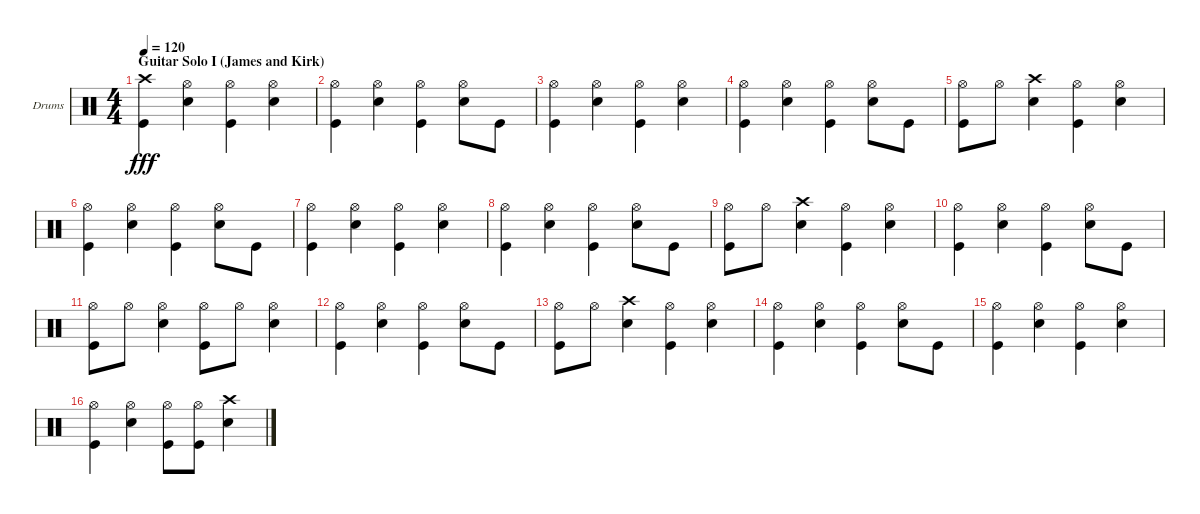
\bracketExtendMode groupsimilarinstruments
\firstSystemTrackNameOrientation horizontal
\otherSystemsTrackNameOrientation horizontal
\track ("Drumkit" "Drums") {instrument percussion}
\staff {score}
\articulation defaults
\ts (4 4)
\section ("" "Guitar Solo I (James and Kirk)")
\tempo 120
\clef neutral
\ks c
("Kick (hit)" "Crash high (hit)").4{dy fff} ("Hi-Hat (open)" "Snare (hit) 2").4 ("Hi-Hat (open)" "Kick (hit)").4 ("Snare (hit) 2" "Hi-Hat (open)").4 |
("Hi-Hat (open)" "Kick (hit)").4 ("Hi-Hat (open)" "Snare (hit) 2").4 ("Hi-Hat (open)" "Kick (hit)").4 ("Snare (hit) 2" "Hi-Hat (open)").8 "Kick (hit)".8 |
("Kick (hit)" "Hi-Hat (open)").4 ("Snare (hit) 2" "Hi-Hat (open)").4 ("Kick (hit)" "Hi-Hat (open)").4 ("Snare (hit) 2" "Hi-Hat (open)").4 |
("Hi-Hat (open)" "Kick (hit)").4 ("Hi-Hat (open)" "Snare (hit) 2").4 ("Hi-Hat (open)" "Kick (hit)").4 ("Snare (hit) 2" "Hi-Hat (open)").8 "Kick (hit)".8 |
("Hi-Hat (open)" "Kick (hit)").8 "Hi-Hat (open)".8 ("Snare (hit) 2" "Crash high (hit)").4 ("Hi-Hat (open)" "Kick (hit)").4 ("Hi-Hat (open)" "Snare (hit) 2").4 |
("Hi-Hat (open)" "Kick (hit)").4 ("Hi-Hat (open)" "Snare (hit) 2").4 ("Hi-Hat (open)" "Kick (hit)").4 ("Snare (hit) 2" "Hi-Hat (open)").8 "Kick (hit)".8 |
("Kick (hit)" "Hi-Hat (open)").4 ("Snare (hit) 2" "Hi-Hat (open)").4 ("Kick (hit)" "Hi-Hat (open)").4 ("Snare (hit) 2" "Hi-Hat (open)").4 |
("Hi-Hat (open)" "Kick (hit)").4 ("Hi-Hat (open)" "Snare (hit) 2").4 ("Hi-Hat (open)" "Kick (hit)").4 ("Snare (hit) 2" "Hi-Hat (open)").8 "Kick (hit)".8 |
("Hi-Hat (open)" "Kick (hit)").8 "Hi-Hat (open)".8 ("Snare (hit) 2" "Crash high (hit)").4 ("Hi-Hat (open)" "Kick (hit)").4 ("Hi-Hat (open)" "Snare (hit) 2").4 |
("Hi-Hat (open)" "Kick (hit)").4 ("Hi-Hat (open)" "Snare (hit) 2").4 ("Hi-Hat (open)" "Kick (hit)").4 ("Snare (hit) 2" "Hi-Hat (open)").8 "Kick (hit)".8 |
("Kick (hit)" "Hi-Hat (open)").8 "Hi-Hat (open)".8 ("Hi-Hat (open)" "Snare (hit) 2").4 ("Kick (hit)" "Hi-Hat (open)").8 "Hi-Hat (open)".8 ("Snare (hit) 2" "Hi-Hat (open)").4 |
("Kick (hit)" "Hi-Hat (open)").4 ("Snare (hit) 2" "Hi-Hat (open)").4 ("Hi-Hat (open)" "Kick (hit)").4 ("Hi-Hat (open)" "Snare (hit) 2").8 "Kick (hit)".8 |
("Kick (hit)" "Hi-Hat (open)").8 "Hi-Hat (open)".8 ("Crash high (hit)" "Snare (hit) 2").4 ("Kick (hit)" "Hi-Hat (open)").4 ("Snare (hit) 2" "Hi-Hat (open)").4 |
("Hi-Hat (open)" "Kick (hit)").4 ("Snare (hit) 2" "Hi-Hat (open)").4 ("Hi-Hat (open)" "Kick (hit)").4 ("Snare (hit) 2" "Hi-Hat (open)").8 "Kick (hit)".8 |
("Kick (hit)" "Hi-Hat (open)").4 ("Snare (hit) 2" "Hi-Hat (open)").4 ("Kick (hit)" "Hi-Hat (open)").4 ("Snare (hit) 2" "Hi-Hat (open)").4 |
("Hi-Hat (open)" "Kick (hit)").4 ("Snare (hit) 2" "Hi-Hat (open)").4 ("Hi-Hat (open)" "Kick (hit)").8 ("Hi-Hat (open)" "Kick (hit)").8 ("Crash high (hit)" "Snare (hit) 2").4
